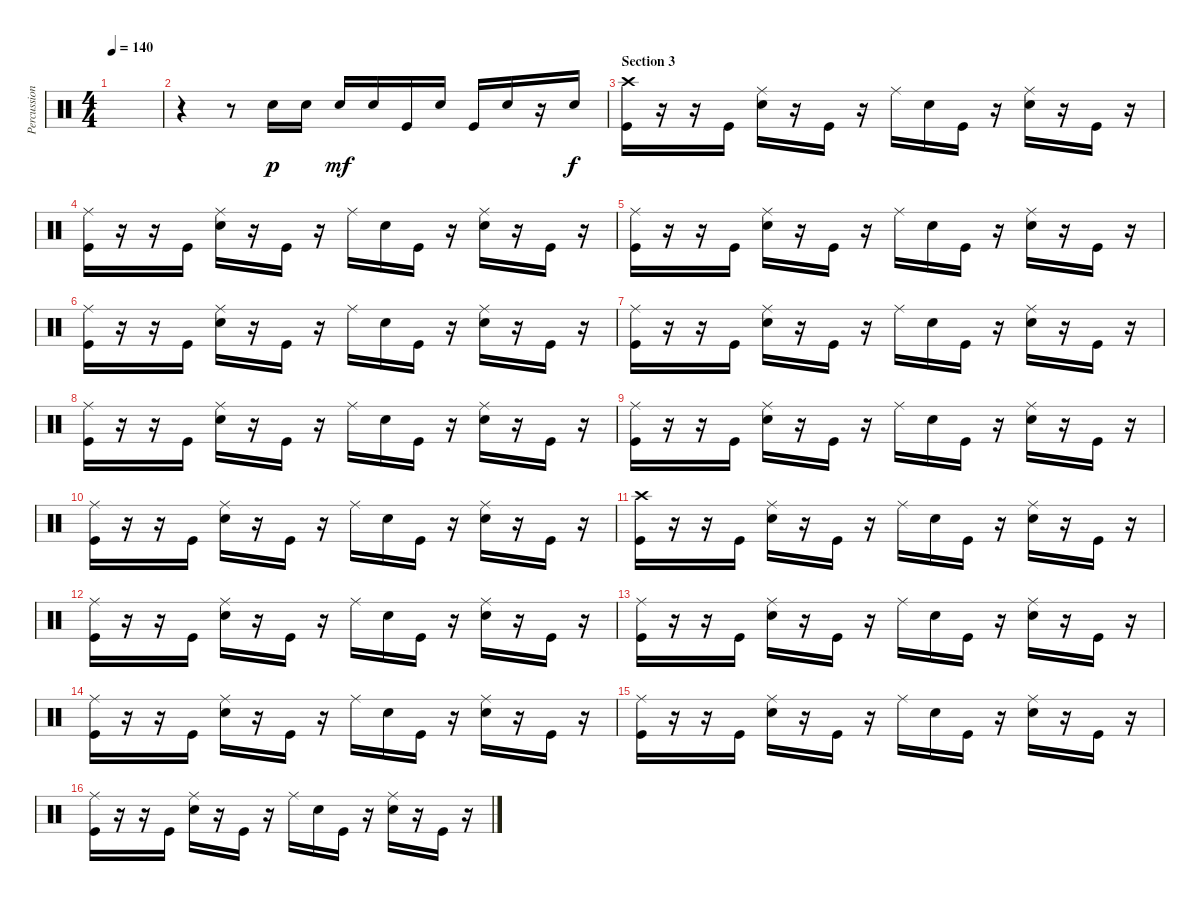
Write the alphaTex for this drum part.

\track ("Percussion" "Percussion") {instrument percussion}
\staff {score}
\articulation defaults
\ts (4 4)
\tempo 140
\clef neutral
\ks c
|
r.4 r.8 "Electric Snare (hit)".16{dy p} "Electric Snare (hit)".16 "Electric Snare (hit)".16{dy mf} "Electric Snare (hit)".16 "Kick (hit)".16 "Electric Snare (hit)".16 "Kick (hit)".16 "Electric Snare (hit)".16 r.16 "Electric Snare (hit)".16{dy f} |
\section ("" "Section 3")
("Crash high (hit)" "Kick (hit)").16 r.16 r.16 "Kick (hit)".16 ("Ride (middle)" "Electric Snare (hit)").16 r.16 "Kick (hit)".16 r.16 "Ride (middle)".16 "Electric Snare (hit)".16 "Kick (hit)".16 r.16 ("Ride (middle)" "Electric Snare (hit)").16 r.16 "Kick (hit)".16 r.16 |
("Ride (middle)" "Kick (hit)").16 r.16 r.16 "Kick (hit)".16 ("Ride (middle)" "Electric Snare (hit)").16 r.16 "Kick (hit)".16 r.16 "Ride (middle)".16 "Electric Snare (hit)".16 "Kick (hit)".16 r.16 ("Ride (middle)" "Electric Snare (hit)").16 r.16 "Kick (hit)".16 r.16 |
("Ride (middle)" "Kick (hit)").16 r.16 r.16 "Kick (hit)".16 ("Ride (middle)" "Electric Snare (hit)").16 r.16 "Kick (hit)".16 r.16 "Ride (middle)".16 "Electric Snare (hit)".16 "Kick (hit)".16 r.16 ("Ride (middle)" "Electric Snare (hit)").16 r.16 "Kick (hit)".16 r.16 |
("Ride (middle)" "Kick (hit)").16 r.16 r.16 "Kick (hit)".16 ("Ride (middle)" "Electric Snare (hit)").16 r.16 "Kick (hit)".16 r.16 "Ride (middle)".16 "Electric Snare (hit)".16 "Kick (hit)".16 r.16 ("Ride (middle)" "Electric Snare (hit)").16 r.16 "Kick (hit)".16 r.16 |
("Ride (middle)" "Kick (hit)").16 r.16 r.16 "Kick (hit)".16 ("Ride (middle)" "Electric Snare (hit)").16 r.16 "Kick (hit)".16 r.16 "Ride (middle)".16 "Electric Snare (hit)".16 "Kick (hit)".16 r.16 ("Ride (middle)" "Electric Snare (hit)").16 r.16 "Kick (hit)".16 r.16 |
("Ride (middle)" "Kick (hit)").16 r.16 r.16 "Kick (hit)".16 ("Ride (middle)" "Electric Snare (hit)").16 r.16 "Kick (hit)".16 r.16 "Ride (middle)".16 "Electric Snare (hit)".16 "Kick (hit)".16 r.16 ("Ride (middle)" "Electric Snare (hit)").16 r.16 "Kick (hit)".16 r.16 |
("Ride (middle)" "Kick (hit)").16 r.16 r.16 "Kick (hit)".16 ("Ride (middle)" "Electric Snare (hit)").16 r.16 "Kick (hit)".16 r.16 "Ride (middle)".16 "Electric Snare (hit)".16 "Kick (hit)".16 r.16 ("Ride (middle)" "Electric Snare (hit)").16 r.16 "Kick (hit)".16 r.16 |
("Ride (middle)" "Kick (hit)").16 r.16 r.16 "Kick (hit)".16 ("Ride (middle)" "Electric Snare (hit)").16 r.16 "Kick (hit)".16 r.16 "Ride (middle)".16 "Electric Snare (hit)".16 "Kick (hit)".16 r.16 ("Ride (middle)" "Electric Snare (hit)").16 r.16 "Kick (hit)".16 r.16 |
("Crash high (hit)" "Kick (hit)").16 r.16 r.16 "Kick (hit)".16 ("Ride (middle)" "Electric Snare (hit)").16 r.16 "Kick (hit)".16 r.16 "Ride (middle)".16 "Electric Snare (hit)".16 "Kick (hit)".16 r.16 ("Ride (middle)" "Electric Snare (hit)").16 r.16 "Kick (hit)".16 r.16 |
("Ride (middle)" "Kick (hit)").16 r.16 r.16 "Kick (hit)".16 ("Ride (middle)" "Electric Snare (hit)").16 r.16 "Kick (hit)".16 r.16 "Ride (middle)".16 "Electric Snare (hit)".16 "Kick (hit)".16 r.16 ("Ride (middle)" "Electric Snare (hit)").16 r.16 "Kick (hit)".16 r.16 |
("Ride (middle)" "Kick (hit)").16 r.16 r.16 "Kick (hit)".16 ("Ride (middle)" "Electric Snare (hit)").16 r.16 "Kick (hit)".16 r.16 "Ride (middle)".16 "Electric Snare (hit)".16 "Kick (hit)".16 r.16 ("Ride (middle)" "Electric Snare (hit)").16 r.16 "Kick (hit)".16 r.16 |
("Ride (middle)" "Kick (hit)").16 r.16 r.16 "Kick (hit)".16 ("Ride (middle)" "Electric Snare (hit)").16 r.16 "Kick (hit)".16 r.16 "Ride (middle)".16 "Electric Snare (hit)".16 "Kick (hit)".16 r.16 ("Ride (middle)" "Electric Snare (hit)").16 r.16 "Kick (hit)".16 r.16 |
("Ride (middle)" "Kick (hit)").16 r.16 r.16 "Kick (hit)".16 ("Ride (middle)" "Electric Snare (hit)").16 r.16 "Kick (hit)".16 r.16 "Ride (middle)".16 "Electric Snare (hit)".16 "Kick (hit)".16 r.16 ("Ride (middle)" "Electric Snare (hit)").16 r.16 "Kick (hit)".16 r.16 |
("Ride (middle)" "Kick (hit)").16 r.16 r.16 "Kick (hit)".16 ("Ride (middle)" "Electric Snare (hit)").16 r.16 "Kick (hit)".16 r.16 "Ride (middle)".16 "Electric Snare (hit)".16 "Kick (hit)".16 r.16 ("Ride (middle)" "Electric Snare (hit)").16 r.16 "Kick (hit)".16 r.16
